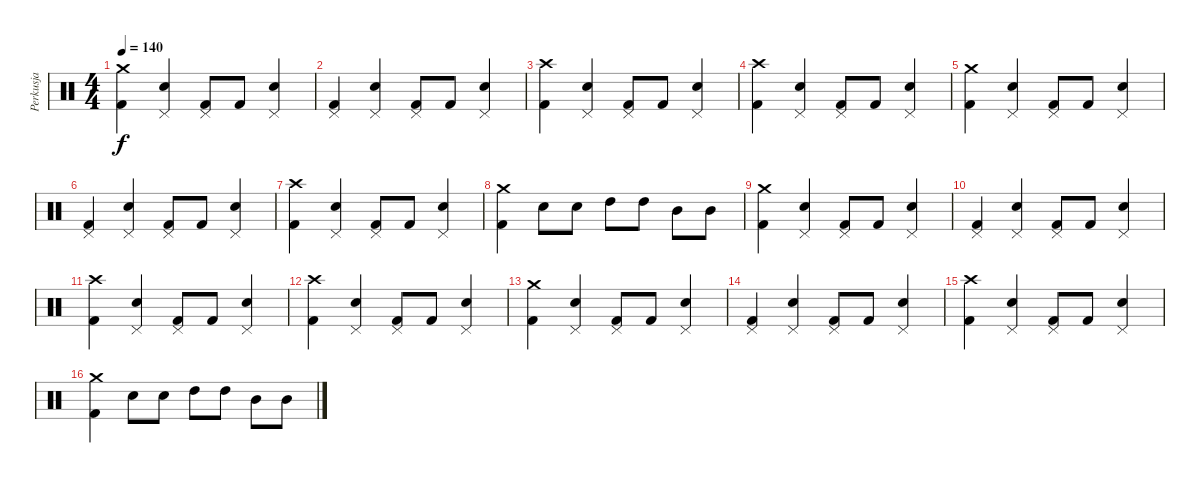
\track ("Perkusja" "Perkusja") {instrument percussion}
\staff {score}
\articulation defaults
\ts (4 4)
\tempo 140
\clef neutral
\ks c
("Crash medium (hit)" "Kick (hit) 2").4{dy f} ("Pedal Hi-Hat (hit)" "Snare (hit) 2").4 ("Pedal Hi-Hat (hit)" "Kick (hit) 2").8 "Kick (hit) 2".8 ("Pedal Hi-Hat (hit)" "Snare (hit) 2").4 |
("Pedal Hi-Hat (hit)" "Kick (hit) 2").4 ("Pedal Hi-Hat (hit)" "Snare (hit) 2").4 ("Pedal Hi-Hat (hit)" "Kick (hit) 2").8 "Kick (hit) 2".8 ("Pedal Hi-Hat (hit)" "Snare (hit) 2").4 |
("Crash high (hit)" "Kick (hit) 2").4 ("Pedal Hi-Hat (hit)" "Snare (hit) 2").4 ("Pedal Hi-Hat (hit)" "Kick (hit) 2").8 "Kick (hit) 2".8 ("Pedal Hi-Hat (hit)" "Snare (hit) 2").4 |
("Crash high (hit)" "Kick (hit) 2").4 ("Pedal Hi-Hat (hit)" "Snare (hit) 2").4 ("Pedal Hi-Hat (hit)" "Kick (hit) 2").8 "Kick (hit) 2".8 ("Pedal Hi-Hat (hit)" "Snare (hit) 2").4 |
("Crash medium (hit)" "Kick (hit) 2").4 ("Pedal Hi-Hat (hit)" "Snare (hit) 2").4 ("Pedal Hi-Hat (hit)" "Kick (hit) 2").8 "Kick (hit) 2".8 ("Pedal Hi-Hat (hit)" "Snare (hit) 2").4 |
("Pedal Hi-Hat (hit)" "Kick (hit) 2").4 ("Pedal Hi-Hat (hit)" "Snare (hit) 2").4 ("Pedal Hi-Hat (hit)" "Kick (hit) 2").8 "Kick (hit) 2".8 ("Pedal Hi-Hat (hit)" "Snare (hit) 2").4 |
("Crash high (hit)" "Kick (hit) 2").4 ("Pedal Hi-Hat (hit)" "Snare (hit) 2").4 ("Pedal Hi-Hat (hit)" "Kick (hit) 2").8 "Kick (hit) 2".8 ("Pedal Hi-Hat (hit)" "Snare (hit) 2").4 |
("Crash medium (hit)" "Kick (hit) 2").4 "Snare (hit) 2".8 "Snare (hit) 2".8 "High Tom (hit)".8 "High Tom (hit)".8 "Mid Tom (hit)".8 "Mid Tom (hit)".8 |
("Crash medium (hit)" "Kick (hit) 2").4 ("Pedal Hi-Hat (hit)" "Snare (hit) 2").4 ("Pedal Hi-Hat (hit)" "Kick (hit) 2").8 "Kick (hit) 2".8 ("Pedal Hi-Hat (hit)" "Snare (hit) 2").4 |
("Pedal Hi-Hat (hit)" "Kick (hit) 2").4 ("Pedal Hi-Hat (hit)" "Snare (hit) 2").4 ("Pedal Hi-Hat (hit)" "Kick (hit) 2").8 "Kick (hit) 2".8 ("Pedal Hi-Hat (hit)" "Snare (hit) 2").4 |
("Crash high (hit)" "Kick (hit) 2").4 ("Pedal Hi-Hat (hit)" "Snare (hit) 2").4 ("Pedal Hi-Hat (hit)" "Kick (hit) 2").8 "Kick (hit) 2".8 ("Pedal Hi-Hat (hit)" "Snare (hit) 2").4 |
("Crash high (hit)" "Kick (hit) 2").4 ("Pedal Hi-Hat (hit)" "Snare (hit) 2").4 ("Pedal Hi-Hat (hit)" "Kick (hit) 2").8 "Kick (hit) 2".8 ("Pedal Hi-Hat (hit)" "Snare (hit) 2").4 |
("Crash medium (hit)" "Kick (hit) 2").4 ("Pedal Hi-Hat (hit)" "Snare (hit) 2").4 ("Pedal Hi-Hat (hit)" "Kick (hit) 2").8 "Kick (hit) 2".8 ("Pedal Hi-Hat (hit)" "Snare (hit) 2").4 |
("Pedal Hi-Hat (hit)" "Kick (hit) 2").4 ("Pedal Hi-Hat (hit)" "Snare (hit) 2").4 ("Pedal Hi-Hat (hit)" "Kick (hit) 2").8 "Kick (hit) 2".8 ("Pedal Hi-Hat (hit)" "Snare (hit) 2").4 |
("Crash high (hit)" "Kick (hit) 2").4 ("Pedal Hi-Hat (hit)" "Snare (hit) 2").4 ("Pedal Hi-Hat (hit)" "Kick (hit) 2").8 "Kick (hit) 2".8 ("Pedal Hi-Hat (hit)" "Snare (hit) 2").4 |
("Crash medium (hit)" "Kick (hit) 2").4 "Snare (hit) 2".8 "Snare (hit) 2".8 "High Tom (hit)".8 "High Tom (hit)".8 "Mid Tom (hit)".8 "Mid Tom (hit)".8
